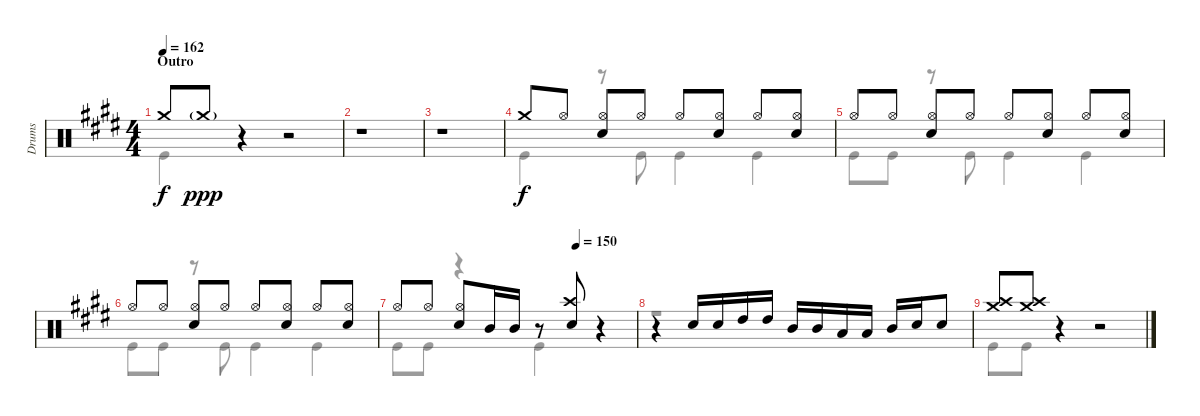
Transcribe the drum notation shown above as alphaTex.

\track ("Drums" "Drums") {instrument percussion}
\staff {score}
\articulation defaults
\voice
\ts (4 4)
\section ("" "Outro")
\tempo 162
\clef neutral
\ks e "Crash medium (hit)".8{dy f} "Crash medium (hit)"{g}.8{dy ppp}
r.4 r.2 |
r.1 |
r.1 |
"Crash medium (hit)".8{dy f} "Hi-Hat (open)".8 ("Hi-Hat (open)" "Electric Snare (hit)").8 "Hi-Hat (open)".8 "Hi-Hat (open)".8 ("Hi-Hat (open)" "Electric Snare (hit)").8 "Hi-Hat (open)".8 ("Hi-Hat (open)" "Electric Snare (hit)").8 |
"Hi-Hat (open)".8 "Hi-Hat (open)".8 ("Hi-Hat (open)" "Electric Snare (hit)").8 "Hi-Hat (open)".8 "Hi-Hat (open)".8 ("Hi-Hat (open)" "Electric Snare (hit)").8 "Hi-Hat (open)".8 ("Hi-Hat (open)" "Electric Snare (hit)").8 |
"Hi-Hat (open)".8 "Hi-Hat (open)".8 ("Hi-Hat (open)" "Electric Snare (hit)").8 "Hi-Hat (open)".8 "Hi-Hat (open)".8 ("Hi-Hat (open)" "Electric Snare (hit)").8 "Hi-Hat (open)".8 ("Hi-Hat (open)" "Electric Snare (hit)").8 |
\tempo (150 0.75)
"Hi-Hat (open)".8 "Hi-Hat (open)".8 ("Hi-Hat (open)" "Electric Snare (hit)").8 "Mid Tom (hit)".16 "Mid Tom (hit)".16 r.8 ("Crash high (hit)" "Electric Snare (hit)").8 r.4 |
r.4 "Electric Snare (hit)".16 "Electric Snare (hit)".16 "High Tom (hit)".16 "High Tom (hit)".16 "Mid Tom (hit)".16 "Mid Tom (hit)".16 "Low Tom (hit)".16 "Low Tom (hit)".16 "Mid Tom (hit)".16 "Electric Snare (hit)".16 "Electric Snare (hit)".8 |
("Crash medium (hit)" "Crash high (hit)").8 ("Crash medium (hit)" "Crash high (hit)").8 r.4 r.2
\voice
\clef neutral
\ottava regular
\simile none
\ks e "Kick (hit)".4{dy f}
r.4 r.2 |
r.1 |
r.1 |
"Kick (hit)".4 r.8 "Kick (hit)".8 "Kick (hit)".4 "Kick (hit)".4 |
"Kick (hit)".8 "Kick (hit)".8 r.8 "Kick (hit)".8 "Kick (hit)".4 "Kick (hit)".4 |
"Kick (hit)".8 "Kick (hit)".8 r.8 "Kick (hit)".8 "Kick (hit)".4 "Kick (hit)".4 |
"Kick (hit)".8 "Kick (hit)".8 r.4 "Kick (hit)".4 r.4 |
r.1 |
"Kick (hit)".8 "Kick (hit)".8 r.4 r.2
